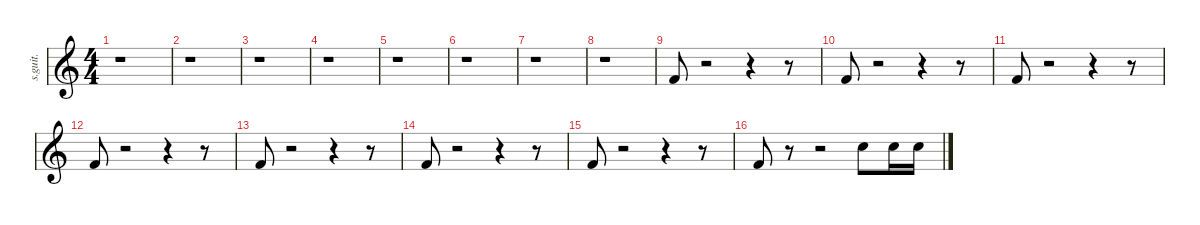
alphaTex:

\defaultSystemsLayout 4
\hideDynamics
\bracketExtendMode nobrackets
\track ("Drums" "s.guit.") {instrument percussion}
\staff {score}
\articulation defaults
\ts (4 4)
\beaming (8 2 2 2 2)
\tempo (100 hide)
\clef g2
\ks c
r.1{dy f} |
r.1 |
r.1 |
r.1 |
r.1 |
r.1 |
r.1 |
r.1 |
"Kick (hit) 2".8 r.2 r.4 r.8 |
"Kick (hit) 2".8 r.2 r.4 r.8 |
"Kick (hit) 2".8 r.2 r.4 r.8 |
"Kick (hit) 2".8 r.2 r.4 r.8 |
"Kick (hit) 2".8 r.2 r.4 r.8 |
"Kick (hit) 2".8 r.2 r.4 r.8 |
"Kick (hit) 2".8 r.2 r.4 r.8 |
"Kick (hit) 2".8 r.8 r.2 "Electric Snare (hit)".8 "Electric Snare (hit)".16 "Electric Snare (hit)".16
